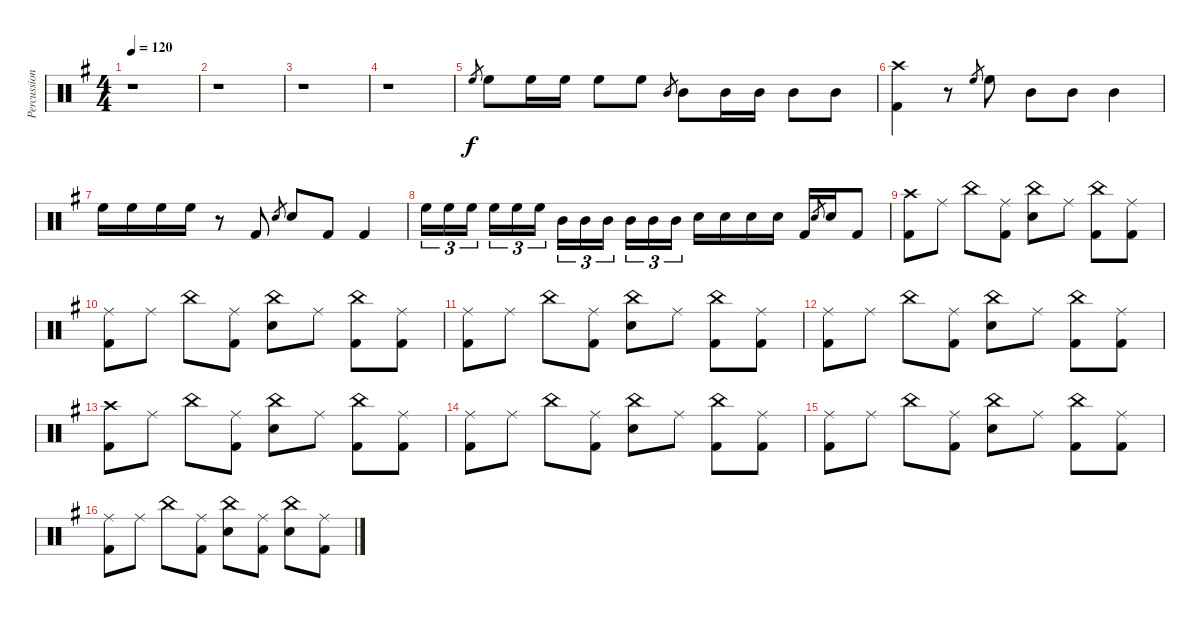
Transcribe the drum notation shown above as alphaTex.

\track ("Percussions" "Percussion") {instrument percussion}
\staff {score}
\articulation defaults
\ts (4 4)
\tempo 120
\clef neutral
\ks g
r.1{dy f} |
r.1 |
r.1 |
r.1 |
"High Floor Tom (hit)".8{gr} "High Floor Tom (hit)".8 "High Floor Tom (hit)".16 "High Floor Tom (hit)".16 "High Floor Tom (hit)".8 "High Floor Tom (hit)".8 "Mid Tom (hit)".8{gr} "Mid Tom (hit)".8 "Mid Tom (hit)".16 "Mid Tom (hit)".16 "Mid Tom (hit)".8 "Mid Tom (hit)".8 |
("Crash high (hit)" "Kick (hit) 2").4 r.8 "High Floor Tom (hit)".8{gr} "High Floor Tom (hit)".8 "Mid Tom (hit)".8 "Mid Tom (hit)".8 "Mid Tom (hit)".4 |
"High Floor Tom (hit)".16 "High Floor Tom (hit)".16 "High Floor Tom (hit)".16 "High Floor Tom (hit)".16 r.8 "Kick (hit) 2".8 "Snare (hit) 2".8{gr} "Snare (hit) 2".8 "Kick (hit) 2".8 "Kick (hit) 2".4 |
"High Floor Tom (hit)".16{tu (3 2)} "High Floor Tom (hit)".16{tu (3 2)} "High Floor Tom (hit)".16{tu (3 2)} "High Floor Tom (hit)".16{tu (3 2)} "High Floor Tom (hit)".16{tu (3 2)} "High Floor Tom (hit)".16{tu (3 2)} "Mid Tom (hit)".16{tu (3 2)} "Mid Tom (hit)".16{tu (3 2)} "Mid Tom (hit)".16{tu (3 2)} "Mid Tom (hit)".16{tu (3 2)} "Mid Tom (hit)".16{tu (3 2)} "Mid Tom (hit)".16{tu (3 2)} "Snare (hit) 2".16 "Snare (hit) 2".16 "Snare (hit) 2".16 "Snare (hit) 2".16 "Kick (hit) 2".16 "Snare (hit) 2".8{gr} "Snare (hit) 2".16 "Kick (hit) 2".8 |
("Crash high (hit)" "Kick (hit) 2").8 "Ride (middle)".8 "China (hit)".8 ("Ride (middle)" "Kick (hit) 2").8 ("China (hit)" "Snare (hit) 2").8 "Ride (middle)".8 ("China (hit)" "Kick (hit) 2").8 ("Ride (middle)" "Kick (hit) 2").8 |
("Ride (middle)" "Kick (hit) 2").8 "Ride (middle)".8 "China (hit)".8 ("Ride (middle)" "Kick (hit) 2").8 ("China (hit)" "Snare (hit) 2").8 "Ride (middle)".8 ("China (hit)" "Kick (hit) 2").8 ("Ride (middle)" "Kick (hit) 2").8 |
("Ride (middle)" "Kick (hit) 2").8 "Ride (middle)".8 "China (hit)".8 ("Ride (middle)" "Kick (hit) 2").8 ("China (hit)" "Snare (hit) 2").8 "Ride (middle)".8 ("China (hit)" "Kick (hit) 2").8 ("Ride (middle)" "Kick (hit) 2").8 |
("Ride (middle)" "Kick (hit) 2").8 "Ride (middle)".8 "China (hit)".8 ("Ride (middle)" "Kick (hit) 2").8 ("China (hit)" "Snare (hit) 2").8 "Ride (middle)".8 ("China (hit)" "Kick (hit) 2").8 ("Ride (middle)" "Kick (hit) 2").8 |
("Crash high (hit)" "Kick (hit) 2").8 "Ride (middle)".8 "China (hit)".8 ("Ride (middle)" "Kick (hit) 2").8 ("China (hit)" "Snare (hit) 2").8 "Ride (middle)".8 ("China (hit)" "Kick (hit) 2").8 ("Ride (middle)" "Kick (hit) 2").8 |
("Ride (middle)" "Kick (hit) 2").8 "Ride (middle)".8 "China (hit)".8 ("Ride (middle)" "Kick (hit) 2").8 ("China (hit)" "Snare (hit) 2").8 "Ride (middle)".8 ("China (hit)" "Kick (hit) 2").8 ("Ride (middle)" "Kick (hit) 2").8 |
("Ride (middle)" "Kick (hit) 2").8 "Ride (middle)".8 "China (hit)".8 ("Ride (middle)" "Kick (hit) 2").8 ("China (hit)" "Snare (hit) 2").8 "Ride (middle)".8 ("China (hit)" "Kick (hit) 2").8 ("Ride (middle)" "Kick (hit) 2").8 |
("Ride (middle)" "Kick (hit) 2").8 "Ride (middle)".8 "China (hit)".8 ("Ride (middle)" "Kick (hit) 2").8 ("China (hit)" "Snare (hit) 2").8 ("Ride (middle)" "Kick (hit) 2").8 ("China (hit)" "Snare (hit) 2").8 ("Ride (middle)" "Kick (hit) 2").8
